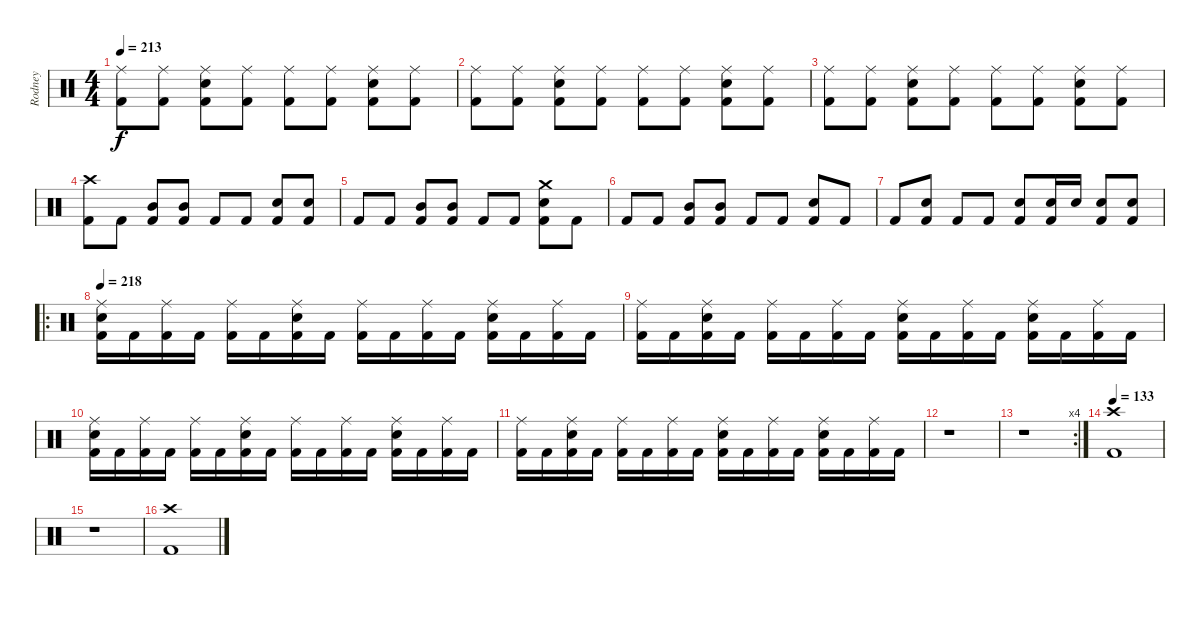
\track ("Rodney" "Rodney") {instrument percussion}
\staff {score}
\articulation defaults
\ts (4 4)
\tempo 213
\clef neutral
\ks c
("Ride (middle)" "Kick (hit) 2").8{dy f} ("Ride (middle)" "Kick (hit) 2").8 ("Ride (middle)" "Snare (hit) 2" "Kick (hit) 2").8 ("Ride (middle)" "Kick (hit) 2").8 ("Ride (middle)" "Kick (hit) 2").8 ("Ride (middle)" "Kick (hit) 2").8 ("Ride (middle)" "Snare (hit) 2" "Kick (hit) 2").8 ("Ride (middle)" "Kick (hit) 2").8 |
("Ride (middle)" "Kick (hit) 2").8 ("Ride (middle)" "Kick (hit) 2").8 ("Ride (middle)" "Snare (hit) 2" "Kick (hit) 2").8 ("Ride (middle)" "Kick (hit) 2").8 ("Ride (middle)" "Kick (hit) 2").8 ("Ride (middle)" "Kick (hit) 2").8 ("Ride (middle)" "Snare (hit) 2" "Kick (hit) 2").8 ("Ride (middle)" "Kick (hit) 2").8 |
("Ride (middle)" "Kick (hit) 2").8 ("Ride (middle)" "Kick (hit) 2").8 ("Ride (middle)" "Snare (hit) 2" "Kick (hit) 2").8 ("Ride (middle)" "Kick (hit) 2").8 ("Ride (middle)" "Kick (hit) 2").8 ("Ride (middle)" "Kick (hit) 2").8 ("Ride (middle)" "Snare (hit) 2" "Kick (hit) 2").8 ("Ride (middle)" "Kick (hit) 2").8 |
("Crash high (hit)" "Kick (hit) 2").8 "Kick (hit) 2".8 ("Mid Tom (hit)" "Kick (hit) 2").8 ("Mid Tom (hit)" "Kick (hit) 2").8 "Kick (hit) 2".8 "Kick (hit) 2".8 ("Snare (hit) 2" "Kick (hit) 2").8 ("Snare (hit) 2" "Kick (hit) 2").8 |
"Kick (hit) 2".8 "Kick (hit) 2".8 ("Mid Tom (hit)" "Kick (hit) 2").8 ("Mid Tom (hit)" "Kick (hit) 2").8 "Kick (hit) 2".8 "Kick (hit) 2".8 ("Crash medium (hit)" "Snare (hit) 2" "Kick (hit) 2").8 "Kick (hit) 2".8 |
"Kick (hit) 2".8 "Kick (hit) 2".8 ("Mid Tom (hit)" "Kick (hit) 2").8 ("Mid Tom (hit)" "Kick (hit) 2").8 "Kick (hit) 2".8 "Kick (hit) 2".8 ("Snare (hit) 2" "Kick (hit) 2").8 "Kick (hit) 2".8 |
"Kick (hit) 2".8 ("Snare (hit) 2" "Kick (hit) 2").8 "Kick (hit) 2".8 "Kick (hit) 2".8 ("Snare (hit) 2" "Kick (hit) 2").8 ("Snare (hit) 2" "Kick (hit) 2").16 "Snare (hit) 2".16 ("Snare (hit) 2" "Kick (hit) 2").8 ("Snare (hit) 2" "Kick (hit) 2").8 |
\ro
\tempo 218
("Ride (middle)" "Snare (hit) 2" "Kick (hit) 2").16 "Kick (hit) 2".16 ("Ride (middle)" "Kick (hit) 2").16 "Kick (hit) 2".16 ("Ride (middle)" "Kick (hit) 2").16 "Kick (hit) 2".16 ("Ride (middle)" "Snare (hit) 2" "Kick (hit) 2").16 "Kick (hit) 2".16 ("Ride (middle)" "Kick (hit) 2").16 "Kick (hit) 2".16 ("Ride (middle)" "Kick (hit) 2").16 "Kick (hit) 2".16 ("Ride (middle)" "Snare (hit) 2" "Kick (hit) 2").16 "Kick (hit) 2".16 ("Ride (middle)" "Kick (hit) 2").16 "Kick (hit) 2".16 |
("Ride (middle)" "Kick (hit) 2").16 "Kick (hit) 2".16 ("Ride (middle)" "Snare (hit) 2" "Kick (hit) 2").16 "Kick (hit) 2".16 ("Ride (middle)" "Kick (hit) 2").16 "Kick (hit) 2".16 ("Ride (middle)" "Kick (hit) 2").16 "Kick (hit) 2".16 ("Ride (middle)" "Snare (hit) 2" "Kick (hit) 2").16 "Kick (hit) 2".16 ("Ride (middle)" "Kick (hit) 2").16 "Kick (hit) 2".16 ("Ride (middle)" "Snare (hit) 2" "Kick (hit) 2").16 "Kick (hit) 2".16 ("Ride (middle)" "Kick (hit) 2").16 "Kick (hit) 2".16 |
("Ride (middle)" "Snare (hit) 2" "Kick (hit) 2").16 "Kick (hit) 2".16 ("Ride (middle)" "Kick (hit) 2").16 "Kick (hit) 2".16 ("Ride (middle)" "Kick (hit) 2").16 "Kick (hit) 2".16 ("Ride (middle)" "Snare (hit) 2" "Kick (hit) 2").16 "Kick (hit) 2".16 ("Ride (middle)" "Kick (hit) 2").16 "Kick (hit) 2".16 ("Ride (middle)" "Kick (hit) 2").16 "Kick (hit) 2".16 ("Ride (middle)" "Snare (hit) 2" "Kick (hit) 2").16 "Kick (hit) 2".16 ("Ride (middle)" "Kick (hit) 2").16 "Kick (hit) 2".16 |
("Ride (middle)" "Kick (hit) 2").16 "Kick (hit) 2".16 ("Ride (middle)" "Snare (hit) 2" "Kick (hit) 2").16 "Kick (hit) 2".16 ("Ride (middle)" "Kick (hit) 2").16 "Kick (hit) 2".16 ("Ride (middle)" "Kick (hit) 2").16 "Kick (hit) 2".16 ("Ride (middle)" "Snare (hit) 2" "Kick (hit) 2").16 "Kick (hit) 2".16 ("Ride (middle)" "Kick (hit) 2").16 "Kick (hit) 2".16 ("Ride (middle)" "Snare (hit) 2" "Kick (hit) 2").16 "Kick (hit) 2".16 ("Ride (middle)" "Kick (hit) 2").16 "Kick (hit) 2".16 |
r.1 |
\rc 4
r.1 |
\tempo 133
("Crash high (hit)" "Kick (hit) 2").1 |
r.1 |
("Crash high (hit)" "Kick (hit) 2").1
